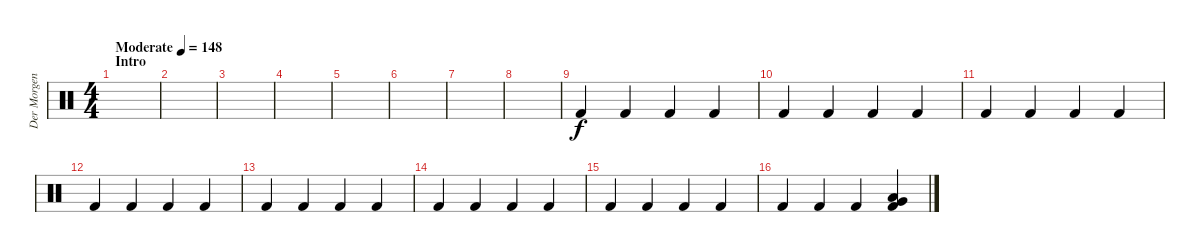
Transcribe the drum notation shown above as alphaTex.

\track ("Der Morgenstern" "Der Morgen") {instrument percussion}
\staff {score}
\articulation defaults
\ts (4 4)
\section ("" "Intro")
\tempo (148 "Moderate")
\clef neutral
\ks c
|
|
|
|
|
|
|
|
"Kick (hit) 2".4 "Kick (hit) 2".4 "Kick (hit) 2".4 "Kick (hit) 2".4 |
"Kick (hit) 2".4 "Kick (hit) 2".4 "Kick (hit) 2".4 "Kick (hit) 2".4 |
"Kick (hit) 2".4 "Kick (hit) 2".4 "Kick (hit) 2".4 "Kick (hit) 2".4 |
"Kick (hit) 2".4 "Kick (hit) 2".4 "Kick (hit) 2".4 "Kick (hit) 2".4 |
"Kick (hit) 2".4 "Kick (hit) 2".4 "Kick (hit) 2".4 "Kick (hit) 2".4 |
"Kick (hit) 2".4 "Kick (hit) 2".4 "Kick (hit) 2".4 "Kick (hit) 2".4 |
"Kick (hit) 2".4 "Kick (hit) 2".4 "Kick (hit) 2".4 "Kick (hit) 2".4 |
"Kick (hit) 2".4 "Kick (hit) 2".4 "Kick (hit) 2".4 ("Very Low Tom (hit)" "Low Floor Tom (hit)" "Kick (hit) 2").4
